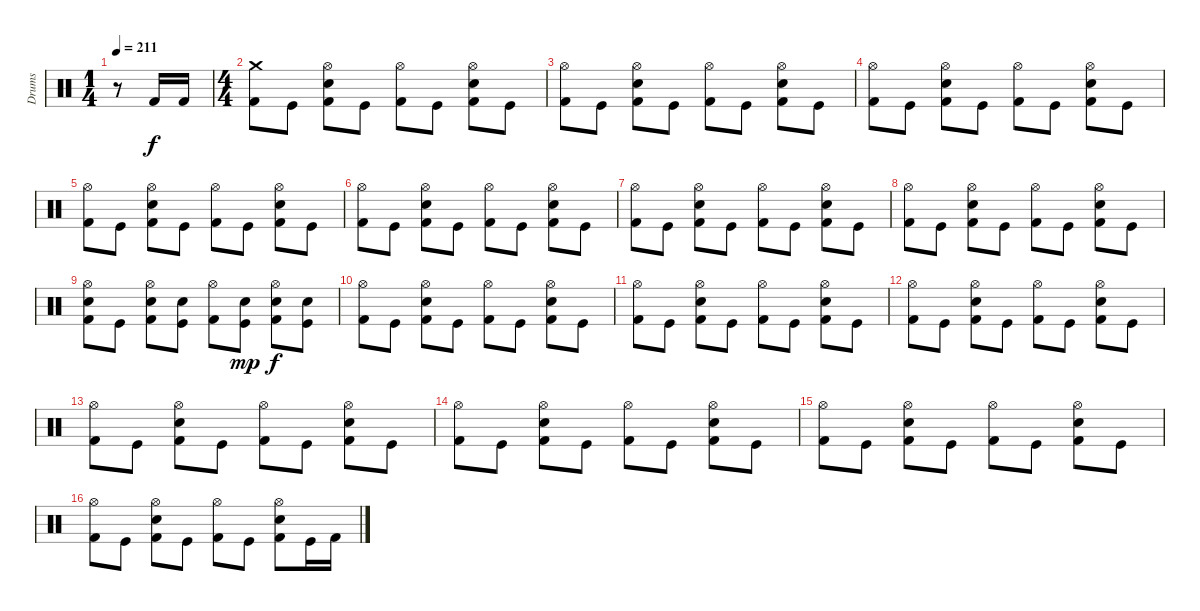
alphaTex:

\track ("Drums" "Drums") {instrument percussion}
\staff {score}
\articulation defaults
\ts (1 4)
\tempo 211
\clef neutral
\ks c
r.8{dy f} "Kick (hit) 2".16 "Kick (hit) 2".16 |
\ts (4 4)
("Kick (hit) 2" "Crash medium (hit)").8 "Kick (hit)".8 ("Kick (hit) 2" "Snare (hit) 2" "Hi-Hat (open)").8 "Kick (hit)".8 ("Kick (hit) 2" "Hi-Hat (open)").8 "Kick (hit)".8 ("Kick (hit) 2" "Snare (hit) 2" "Hi-Hat (open)").8 "Kick (hit)".8 |
("Kick (hit) 2" "Hi-Hat (open)").8 "Kick (hit)".8 ("Kick (hit) 2" "Snare (hit) 2" "Hi-Hat (open)").8 "Kick (hit)".8 ("Kick (hit) 2" "Hi-Hat (open)").8 "Kick (hit)".8 ("Kick (hit) 2" "Snare (hit) 2" "Hi-Hat (open)").8 "Kick (hit)".8 |
("Kick (hit) 2" "Hi-Hat (open)").8 "Kick (hit)".8 ("Kick (hit) 2" "Snare (hit) 2" "Hi-Hat (open)").8 "Kick (hit)".8 ("Kick (hit) 2" "Hi-Hat (open)").8 "Kick (hit)".8 ("Kick (hit) 2" "Snare (hit) 2" "Hi-Hat (open)").8 "Kick (hit)".8 |
("Kick (hit) 2" "Hi-Hat (open)").8 "Kick (hit)".8 ("Kick (hit) 2" "Snare (hit) 2" "Hi-Hat (open)").8 "Kick (hit)".8 ("Kick (hit) 2" "Hi-Hat (open)").8 "Kick (hit)".8 ("Kick (hit) 2" "Snare (hit) 2" "Hi-Hat (open)").8 "Kick (hit)".8 |
("Kick (hit) 2" "Hi-Hat (open)").8 "Kick (hit)".8 ("Kick (hit) 2" "Snare (hit) 2" "Hi-Hat (open)").8 "Kick (hit)".8 ("Kick (hit) 2" "Hi-Hat (open)").8 "Kick (hit)".8 ("Kick (hit) 2" "Snare (hit) 2" "Hi-Hat (open)").8 "Kick (hit)".8 |
("Kick (hit) 2" "Hi-Hat (open)").8 "Kick (hit)".8 ("Kick (hit) 2" "Snare (hit) 2" "Hi-Hat (open)").8 "Kick (hit)".8 ("Kick (hit) 2" "Hi-Hat (open)").8 "Kick (hit)".8 ("Kick (hit) 2" "Snare (hit) 2" "Hi-Hat (open)").8 "Kick (hit)".8 |
("Kick (hit) 2" "Hi-Hat (open)").8 "Kick (hit)".8 ("Kick (hit) 2" "Snare (hit) 2" "Hi-Hat (open)").8 "Kick (hit)".8 ("Kick (hit) 2" "Hi-Hat (open)").8 "Kick (hit)".8 ("Kick (hit) 2" "Snare (hit) 2" "Hi-Hat (open)").8 "Kick (hit)".8 |
("Kick (hit) 2" "Snare (hit) 2" "Hi-Hat (open)").8 "Kick (hit)".8 ("Kick (hit) 2" "Snare (hit) 2" "Hi-Hat (open)").8 ("Kick (hit)" "Snare (hit) 2").8 ("Kick (hit) 2" "Hi-Hat (open)").8 ("Kick (hit)" "Snare (hit) 2").8{dy mp} ("Kick (hit) 2" "Snare (hit) 2" "Hi-Hat (open)").8{dy f} ("Kick (hit)" "Snare (hit) 2").8 |
("Kick (hit) 2" "Hi-Hat (open)").8 "Kick (hit)".8 ("Kick (hit) 2" "Snare (hit) 2" "Hi-Hat (open)").8 "Kick (hit)".8 ("Kick (hit) 2" "Hi-Hat (open)").8 "Kick (hit)".8 ("Kick (hit) 2" "Snare (hit) 2" "Hi-Hat (open)").8 "Kick (hit)".8 |
("Kick (hit) 2" "Hi-Hat (open)").8 "Kick (hit)".8 ("Kick (hit) 2" "Snare (hit) 2" "Hi-Hat (open)").8 "Kick (hit)".8 ("Kick (hit) 2" "Hi-Hat (open)").8 "Kick (hit)".8 ("Kick (hit) 2" "Snare (hit) 2" "Hi-Hat (open)").8 "Kick (hit)".8 |
("Kick (hit) 2" "Hi-Hat (open)").8 "Kick (hit)".8 ("Kick (hit) 2" "Snare (hit) 2" "Hi-Hat (open)").8 "Kick (hit)".8 ("Kick (hit) 2" "Hi-Hat (open)").8 "Kick (hit)".8 ("Kick (hit) 2" "Snare (hit) 2" "Hi-Hat (open)").8 "Kick (hit)".8 |
("Kick (hit) 2" "Hi-Hat (open)").8 "Kick (hit)".8 ("Kick (hit) 2" "Snare (hit) 2" "Hi-Hat (open)").8 "Kick (hit)".8 ("Kick (hit) 2" "Hi-Hat (open)").8 "Kick (hit)".8 ("Kick (hit) 2" "Snare (hit) 2" "Hi-Hat (open)").8 "Kick (hit)".8 |
("Kick (hit) 2" "Hi-Hat (open)").8 "Kick (hit)".8 ("Kick (hit) 2" "Snare (hit) 2" "Hi-Hat (open)").8 "Kick (hit)".8 ("Kick (hit) 2" "Hi-Hat (open)").8 "Kick (hit)".8 ("Kick (hit) 2" "Snare (hit) 2" "Hi-Hat (open)").8 "Kick (hit)".8 |
("Kick (hit) 2" "Hi-Hat (open)").8 "Kick (hit)".8 ("Kick (hit) 2" "Snare (hit) 2" "Hi-Hat (open)").8 "Kick (hit)".8 ("Kick (hit) 2" "Hi-Hat (open)").8 "Kick (hit)".8 ("Kick (hit) 2" "Snare (hit) 2" "Hi-Hat (open)").8 "Kick (hit)".8 |
("Kick (hit) 2" "Hi-Hat (open)").8 "Kick (hit)".8 ("Kick (hit) 2" "Snare (hit) 2" "Hi-Hat (open)").8 "Kick (hit)".8 ("Kick (hit) 2" "Hi-Hat (open)").8 "Kick (hit)".8 ("Kick (hit) 2" "Snare (hit) 2" "Hi-Hat (open)").8 "Kick (hit)".16 "Kick (hit) 2".16
